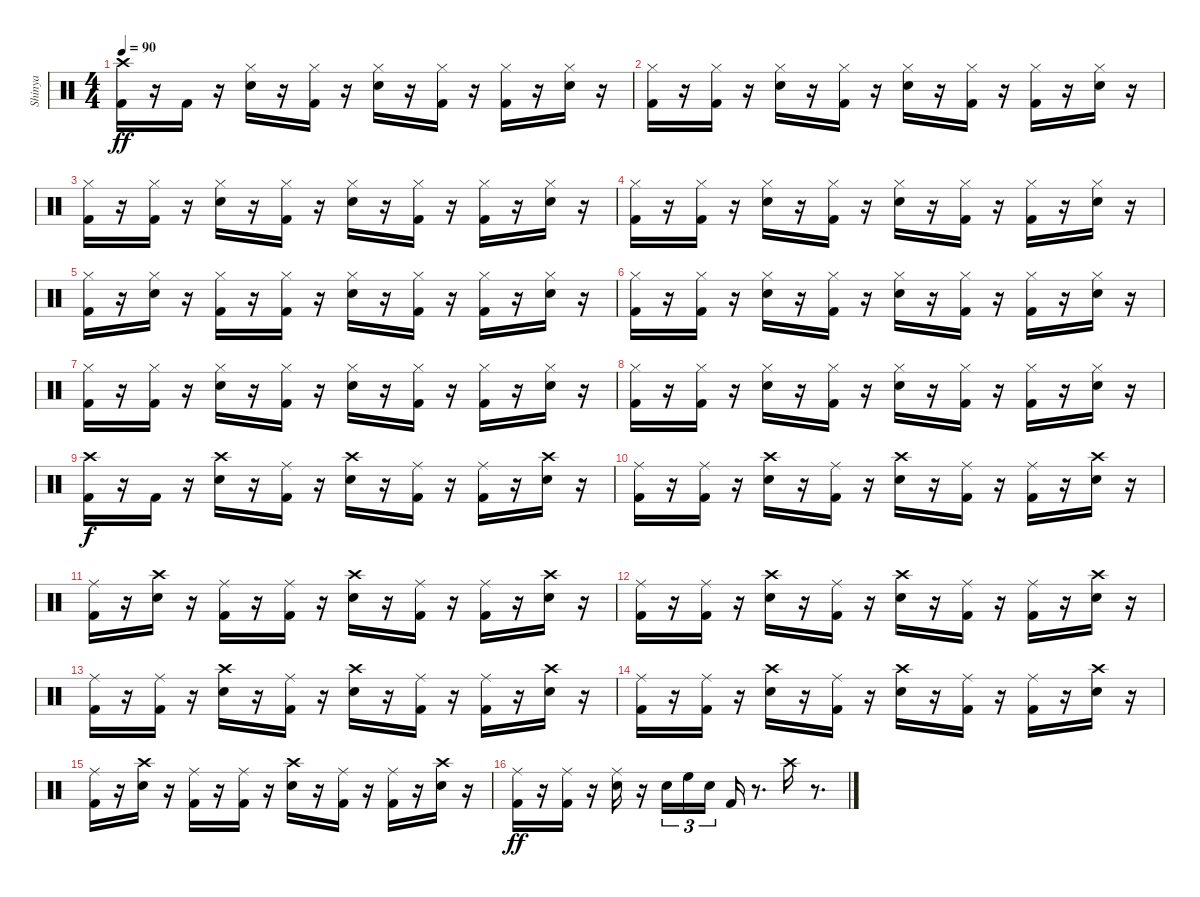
\track ("Shinya" "Shinya") {instrument percussion}
\staff {score}
\articulation defaults
\ts (4 4)
\tempo 90
\clef neutral
\ks c
("Crash high (hit)" "Kick (hit) 2").16{dy ff} r.16 "Kick (hit) 2".16 r.16 ("Snare (hit) 2" "Hi-Hat (closed)").16 r.16 ("Hi-Hat (closed)" "Kick (hit) 2").16 r.16 ("Snare (hit) 2" "Hi-Hat (closed)").16 r.16 ("Hi-Hat (closed)" "Kick (hit) 2").16 r.16 ("Hi-Hat (closed)" "Kick (hit) 2").16 r.16 ("Snare (hit) 2" "Hi-Hat (closed)").16 r.16 |
("Hi-Hat (closed)" "Kick (hit) 2").16 r.16 ("Hi-Hat (closed)" "Kick (hit) 2").16 r.16 ("Snare (hit) 2" "Hi-Hat (closed)").16 r.16 ("Hi-Hat (closed)" "Kick (hit) 2").16 r.16 ("Snare (hit) 2" "Hi-Hat (closed)").16 r.16 ("Hi-Hat (closed)" "Kick (hit) 2").16 r.16 ("Hi-Hat (closed)" "Kick (hit) 2").16 r.16 ("Snare (hit) 2" "Hi-Hat (closed)").16 r.16 |
("Hi-Hat (closed)" "Kick (hit) 2").16 r.16 ("Hi-Hat (closed)" "Kick (hit) 2").16 r.16 ("Snare (hit) 2" "Hi-Hat (closed)").16 r.16 ("Hi-Hat (closed)" "Kick (hit) 2").16 r.16 ("Snare (hit) 2" "Hi-Hat (closed)").16 r.16 ("Hi-Hat (closed)" "Kick (hit) 2").16 r.16 ("Hi-Hat (closed)" "Kick (hit) 2").16 r.16 ("Snare (hit) 2" "Hi-Hat (closed)").16 r.16 |
("Hi-Hat (closed)" "Kick (hit) 2").16 r.16 ("Hi-Hat (closed)" "Kick (hit) 2").16 r.16 ("Snare (hit) 2" "Hi-Hat (closed)").16 r.16 ("Hi-Hat (closed)" "Kick (hit) 2").16 r.16 ("Snare (hit) 2" "Hi-Hat (closed)").16 r.16 ("Hi-Hat (closed)" "Kick (hit) 2").16 r.16 ("Hi-Hat (closed)" "Kick (hit) 2").16 r.16 ("Snare (hit) 2" "Hi-Hat (closed)").16 r.16 |
("Hi-Hat (closed)" "Kick (hit) 2").16 r.16 ("Snare (hit) 2" "Hi-Hat (closed)").16 r.16 ("Hi-Hat (closed)" "Kick (hit) 2").16 r.16 ("Kick (hit) 2" "Hi-Hat (closed)").16 r.16 ("Snare (hit) 2" "Hi-Hat (closed)").16 r.16 ("Hi-Hat (closed)" "Kick (hit) 2").16 r.16 ("Hi-Hat (closed)" "Kick (hit) 2").16 r.16 ("Snare (hit) 2" "Hi-Hat (closed)").16 r.16 |
("Hi-Hat (closed)" "Kick (hit) 2").16 r.16 ("Hi-Hat (closed)" "Kick (hit) 2").16 r.16 ("Snare (hit) 2" "Hi-Hat (closed)").16 r.16 ("Hi-Hat (closed)" "Kick (hit) 2").16 r.16 ("Snare (hit) 2" "Hi-Hat (closed)").16 r.16 ("Hi-Hat (closed)" "Kick (hit) 2").16 r.16 ("Hi-Hat (closed)" "Kick (hit) 2").16 r.16 ("Snare (hit) 2" "Hi-Hat (closed)").16 r.16 |
("Hi-Hat (closed)" "Kick (hit) 2").16 r.16 ("Hi-Hat (closed)" "Kick (hit) 2").16 r.16 ("Snare (hit) 2" "Hi-Hat (closed)").16 r.16 ("Hi-Hat (closed)" "Kick (hit) 2").16 r.16 ("Snare (hit) 2" "Hi-Hat (closed)").16 r.16 ("Hi-Hat (closed)" "Kick (hit) 2").16 r.16 ("Hi-Hat (closed)" "Kick (hit) 2").16 r.16 ("Snare (hit) 2" "Hi-Hat (closed)").16 r.16 |
("Hi-Hat (closed)" "Kick (hit) 2").16 r.16 ("Hi-Hat (closed)" "Kick (hit) 2").16 r.16 ("Snare (hit) 2" "Hi-Hat (closed)").16 r.16 ("Hi-Hat (closed)" "Kick (hit) 2").16 r.16 ("Snare (hit) 2" "Hi-Hat (closed)").16 r.16 ("Hi-Hat (closed)" "Kick (hit) 2").16 r.16 ("Hi-Hat (closed)" "Kick (hit) 2").16 r.16 ("Snare (hit) 2" "Hi-Hat (closed)").16 r.16 |
("Crash high (hit)" "Kick (hit) 2").16{dy f} r.16 "Kick (hit) 2".16 r.16 ("Snare (hit) 2" "Crash high (hit)").16 r.16 ("Ride (middle)" "Kick (hit) 2").16 r.16 ("Snare (hit) 2" "Crash high (hit)").16 r.16 ("Ride (middle)" "Kick (hit) 2").16 r.16 ("Ride (middle)" "Kick (hit) 2").16 r.16 ("Snare (hit) 2" "Crash high (hit)").16 r.16 |
("Ride (middle)" "Kick (hit) 2").16 r.16 ("Ride (middle)" "Kick (hit) 2").16 r.16 ("Snare (hit) 2" "Crash high (hit)").16 r.16 ("Ride (middle)" "Kick (hit) 2").16 r.16 ("Snare (hit) 2" "Crash high (hit)").16 r.16 ("Ride (middle)" "Kick (hit) 2").16 r.16 ("Ride (middle)" "Kick (hit) 2").16 r.16 ("Snare (hit) 2" "Crash high (hit)").16 r.16 |
("Ride (middle)" "Kick (hit) 2").16 r.16 ("Snare (hit) 2" "Crash high (hit)").16 r.16 ("Ride (middle)" "Kick (hit) 2").16 r.16 ("Ride (middle)" "Kick (hit) 2").16 r.16 ("Snare (hit) 2" "Crash high (hit)").16 r.16 ("Ride (middle)" "Kick (hit) 2").16 r.16 ("Ride (middle)" "Kick (hit) 2").16 r.16 ("Snare (hit) 2" "Crash high (hit)").16 r.16 |
("Ride (middle)" "Kick (hit) 2").16 r.16 ("Ride (middle)" "Kick (hit) 2").16 r.16 ("Snare (hit) 2" "Crash high (hit)").16 r.16 ("Ride (middle)" "Kick (hit) 2").16 r.16 ("Snare (hit) 2" "Crash high (hit)").16 r.16 ("Ride (middle)" "Kick (hit) 2").16 r.16 ("Ride (middle)" "Kick (hit) 2").16 r.16 ("Snare (hit) 2" "Crash high (hit)").16 r.16 |
("Ride (middle)" "Kick (hit) 2").16 r.16 ("Ride (middle)" "Kick (hit) 2").16 r.16 ("Snare (hit) 2" "Crash high (hit)").16 r.16 ("Ride (middle)" "Kick (hit) 2").16 r.16 ("Snare (hit) 2" "Crash high (hit)").16 r.16 ("Ride (middle)" "Kick (hit) 2").16 r.16 ("Ride (middle)" "Kick (hit) 2").16 r.16 ("Snare (hit) 2" "Crash high (hit)").16 r.16 |
("Ride (middle)" "Kick (hit) 2").16 r.16 ("Ride (middle)" "Kick (hit) 2").16 r.16 ("Snare (hit) 2" "Crash high (hit)").16 r.16 ("Ride (middle)" "Kick (hit) 2").16 r.16 ("Snare (hit) 2" "Crash high (hit)").16 r.16 ("Ride (middle)" "Kick (hit) 2").16 r.16 ("Ride (middle)" "Kick (hit) 2").16 r.16 ("Snare (hit) 2" "Crash high (hit)").16 r.16 |
("Ride (middle)" "Kick (hit) 2").16 r.16 ("Snare (hit) 2" "Crash high (hit)").16 r.16 ("Ride (middle)" "Kick (hit) 2").16 r.16 ("Ride (middle)" "Kick (hit) 2").16 r.16 ("Snare (hit) 2" "Crash high (hit)").16 r.16 ("Ride (middle)" "Kick (hit) 2").16 r.16 ("Ride (middle)" "Kick (hit) 2").16 r.16 ("Snare (hit) 2" "Crash high (hit)").16 r.16 |
("Ride (middle)" "Kick (hit) 2").16{dy ff} r.16 ("Ride (middle)" "Kick (hit) 2").16 r.16 ("Snare (hit) 2" "Ride (middle)").16 r.16 "Snare (hit) 2".16{tu (3 2)} "High Floor Tom (hit)".16{tu (3 2)} "Snare (hit) 2".16{tu (3 2)} "Kick (hit) 2".16 r.8{d} "Crash high (hit)".16 r.8{d}
